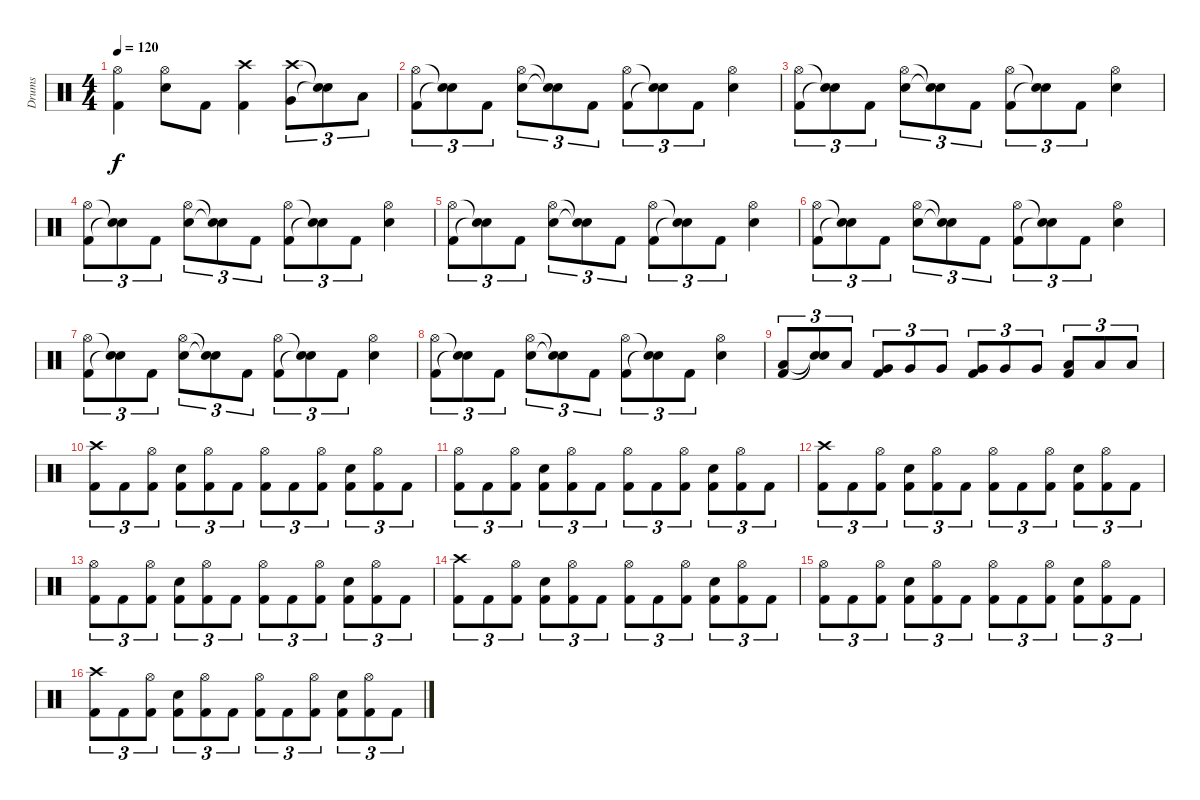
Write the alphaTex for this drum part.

\track ("Drums" "Drums") {instrument percussion}
\staff {score}
\articulation defaults
\ts (4 4)
\tempo 120
\clef neutral
\ks c
("Hi-Hat (open)" "Kick (hit) 2").4{dy f} ("Hi-Hat (open)" "Electric Snare (hit)").8 "Kick (hit) 2".8 ("Crash high (hit)" "Kick (hit) 2").4 ("Crash high (hit)" "Very Low Tom (hit)").8{tu (3 2)} ("Snare (hit)"{t} "Snare (hit)"{t}).8{tu (3 2)} "Low Floor Tom (hit)".8{tu (3 2)} |
("Hi-Hat (open)" "Kick (hit) 2").8{tu (3 2)} ("Snare (hit)"{t} "Snare (hit)"{t}).8{tu (3 2)} "Kick (hit) 2".8{tu (3 2)} ("Hi-Hat (open)" "Electric Snare (hit)").8{tu (3 2)} ("Snare (hit)"{t} "Snare (hit)"{t}).8{tu (3 2)} "Kick (hit) 2".8{tu (3 2)} ("Hi-Hat (open)" "Kick (hit) 2").8{tu (3 2)} ("Snare (hit)"{t} "Snare (hit)"{t}).8{tu (3 2)} "Kick (hit) 2".8{tu (3 2)} ("Hi-Hat (open)" "Electric Snare (hit)").4 |
("Hi-Hat (open)" "Kick (hit) 2").8{tu (3 2)} ("Snare (hit)"{t} "Snare (hit)"{t}).8{tu (3 2)} "Kick (hit) 2".8{tu (3 2)} ("Hi-Hat (open)" "Electric Snare (hit)").8{tu (3 2)} ("Snare (hit)"{t} "Snare (hit)"{t}).8{tu (3 2)} "Kick (hit) 2".8{tu (3 2)} ("Hi-Hat (open)" "Kick (hit) 2").8{tu (3 2)} ("Snare (hit)"{t} "Snare (hit)"{t}).8{tu (3 2)} "Kick (hit) 2".8{tu (3 2)} ("Hi-Hat (open)" "Electric Snare (hit)").4 |
("Hi-Hat (open)" "Kick (hit) 2").8{tu (3 2)} ("Snare (hit)"{t} "Snare (hit)"{t}).8{tu (3 2)} "Kick (hit) 2".8{tu (3 2)} ("Hi-Hat (open)" "Electric Snare (hit)").8{tu (3 2)} ("Snare (hit)"{t} "Snare (hit)"{t}).8{tu (3 2)} "Kick (hit) 2".8{tu (3 2)} ("Hi-Hat (open)" "Kick (hit) 2").8{tu (3 2)} ("Snare (hit)"{t} "Snare (hit)"{t}).8{tu (3 2)} "Kick (hit) 2".8{tu (3 2)} ("Hi-Hat (open)" "Electric Snare (hit)").4 |
("Hi-Hat (open)" "Kick (hit) 2").8{tu (3 2)} ("Snare (hit)"{t} "Snare (hit)"{t}).8{tu (3 2)} "Kick (hit) 2".8{tu (3 2)} ("Hi-Hat (open)" "Electric Snare (hit)").8{tu (3 2)} ("Snare (hit)"{t} "Snare (hit)"{t}).8{tu (3 2)} "Kick (hit) 2".8{tu (3 2)} ("Hi-Hat (open)" "Kick (hit) 2").8{tu (3 2)} ("Snare (hit)"{t} "Snare (hit)"{t}).8{tu (3 2)} "Kick (hit) 2".8{tu (3 2)} ("Hi-Hat (open)" "Electric Snare (hit)").4 |
("Hi-Hat (open)" "Kick (hit) 2").8{tu (3 2)} ("Snare (hit)"{t} "Snare (hit)"{t}).8{tu (3 2)} "Kick (hit) 2".8{tu (3 2)} ("Hi-Hat (open)" "Electric Snare (hit)").8{tu (3 2)} ("Snare (hit)"{t} "Snare (hit)"{t}).8{tu (3 2)} "Kick (hit) 2".8{tu (3 2)} ("Hi-Hat (open)" "Kick (hit) 2").8{tu (3 2)} ("Snare (hit)"{t} "Snare (hit)"{t}).8{tu (3 2)} "Kick (hit) 2".8{tu (3 2)} ("Hi-Hat (open)" "Electric Snare (hit)").4 |
("Hi-Hat (open)" "Kick (hit) 2").8{tu (3 2)} ("Snare (hit)"{t} "Snare (hit)"{t}).8{tu (3 2)} "Kick (hit) 2".8{tu (3 2)} ("Hi-Hat (open)" "Electric Snare (hit)").8{tu (3 2)} ("Snare (hit)"{t} "Snare (hit)"{t}).8{tu (3 2)} "Kick (hit) 2".8{tu (3 2)} ("Hi-Hat (open)" "Kick (hit) 2").8{tu (3 2)} ("Snare (hit)"{t} "Snare (hit)"{t}).8{tu (3 2)} "Kick (hit) 2".8{tu (3 2)} ("Hi-Hat (open)" "Electric Snare (hit)").4 |
("Hi-Hat (open)" "Kick (hit) 2").8{tu (3 2)} ("Snare (hit)"{t} "Snare (hit)"{t}).8{tu (3 2)} "Kick (hit) 2".8{tu (3 2)} ("Hi-Hat (open)" "Electric Snare (hit)").8{tu (3 2)} ("Snare (hit)"{t} "Snare (hit)"{t}).8{tu (3 2)} "Kick (hit) 2".8{tu (3 2)} ("Hi-Hat (open)" "Kick (hit) 2").8{tu (3 2)} ("Snare (hit)"{t} "Snare (hit)"{t}).8{tu (3 2)} "Kick (hit) 2".8{tu (3 2)} ("Hi-Hat (open)" "Electric Snare (hit)").4 |
("Kick (hit) 2" "Low Tom (hit)").8{tu (3 2)} ("Snare (hit)"{t} "Snare (hit)"{t}).8{tu (3 2)} "Low Tom (hit)".8{tu (3 2)} ("Kick (hit) 2" "Very Low Tom (hit)").8{tu (3 2)} "Very Low Tom (hit)".8{tu (3 2)} "Very Low Tom (hit)".8{tu (3 2)} ("Kick (hit) 2" "Very Low Tom (hit)").8{tu (3 2)} "Very Low Tom (hit)".8{tu (3 2)} "Very Low Tom (hit)".8{tu (3 2)} ("Kick (hit) 2" "Low Floor Tom (hit)").8{tu (3 2)} "Low Floor Tom (hit)".8{tu (3 2)} "Low Floor Tom (hit)".8{tu (3 2)} |
("Crash high (hit)" "Kick (hit) 2").8{tu (3 2)} "Kick (hit) 2".8{tu (3 2)} ("Hi-Hat (open)" "Kick (hit) 2").8{tu (3 2)} ("Electric Snare (hit)" "Kick (hit) 2").8{tu (3 2)} ("Hi-Hat (open)" "Kick (hit) 2").8{tu (3 2)} "Kick (hit) 2".8{tu (3 2)} ("Hi-Hat (open)" "Kick (hit) 2").8{tu (3 2)} "Kick (hit) 2".8{tu (3 2)} ("Hi-Hat (open)" "Kick (hit) 2").8{tu (3 2)} ("Electric Snare (hit)" "Kick (hit) 2").8{tu (3 2)} ("Hi-Hat (open)" "Kick (hit) 2").8{tu (3 2)} "Kick (hit) 2".8{tu (3 2)} |
("Hi-Hat (open)" "Kick (hit) 2").8{tu (3 2)} "Kick (hit) 2".8{tu (3 2)} ("Hi-Hat (open)" "Kick (hit) 2").8{tu (3 2)} ("Electric Snare (hit)" "Kick (hit) 2").8{tu (3 2)} ("Hi-Hat (open)" "Kick (hit) 2").8{tu (3 2)} "Kick (hit) 2".8{tu (3 2)} ("Hi-Hat (open)" "Kick (hit) 2").8{tu (3 2)} "Kick (hit) 2".8{tu (3 2)} ("Hi-Hat (open)" "Kick (hit) 2").8{tu (3 2)} ("Electric Snare (hit)" "Kick (hit) 2").8{tu (3 2)} ("Hi-Hat (open)" "Kick (hit) 2").8{tu (3 2)} "Kick (hit) 2".8{tu (3 2)} |
("Crash high (hit)" "Kick (hit) 2").8{tu (3 2)} "Kick (hit) 2".8{tu (3 2)} ("Hi-Hat (open)" "Kick (hit) 2").8{tu (3 2)} ("Electric Snare (hit)" "Kick (hit) 2").8{tu (3 2)} ("Hi-Hat (open)" "Kick (hit) 2").8{tu (3 2)} "Kick (hit) 2".8{tu (3 2)} ("Hi-Hat (open)" "Kick (hit) 2").8{tu (3 2)} "Kick (hit) 2".8{tu (3 2)} ("Hi-Hat (open)" "Kick (hit) 2").8{tu (3 2)} ("Electric Snare (hit)" "Kick (hit) 2").8{tu (3 2)} ("Hi-Hat (open)" "Kick (hit) 2").8{tu (3 2)} "Kick (hit) 2".8{tu (3 2)} |
("Hi-Hat (open)" "Kick (hit) 2").8{tu (3 2)} "Kick (hit) 2".8{tu (3 2)} ("Hi-Hat (open)" "Kick (hit) 2").8{tu (3 2)} ("Electric Snare (hit)" "Kick (hit) 2").8{tu (3 2)} ("Hi-Hat (open)" "Kick (hit) 2").8{tu (3 2)} "Kick (hit) 2".8{tu (3 2)} ("Hi-Hat (open)" "Kick (hit) 2").8{tu (3 2)} "Kick (hit) 2".8{tu (3 2)} ("Hi-Hat (open)" "Kick (hit) 2").8{tu (3 2)} ("Electric Snare (hit)" "Kick (hit) 2").8{tu (3 2)} ("Hi-Hat (open)" "Kick (hit) 2").8{tu (3 2)} "Kick (hit) 2".8{tu (3 2)} |
("Crash high (hit)" "Kick (hit) 2").8{tu (3 2)} "Kick (hit) 2".8{tu (3 2)} ("Hi-Hat (open)" "Kick (hit) 2").8{tu (3 2)} ("Electric Snare (hit)" "Kick (hit) 2").8{tu (3 2)} ("Hi-Hat (open)" "Kick (hit) 2").8{tu (3 2)} "Kick (hit) 2".8{tu (3 2)} ("Hi-Hat (open)" "Kick (hit) 2").8{tu (3 2)} "Kick (hit) 2".8{tu (3 2)} ("Hi-Hat (open)" "Kick (hit) 2").8{tu (3 2)} ("Electric Snare (hit)" "Kick (hit) 2").8{tu (3 2)} ("Hi-Hat (open)" "Kick (hit) 2").8{tu (3 2)} "Kick (hit) 2".8{tu (3 2)} |
("Hi-Hat (open)" "Kick (hit) 2").8{tu (3 2)} "Kick (hit) 2".8{tu (3 2)} ("Hi-Hat (open)" "Kick (hit) 2").8{tu (3 2)} ("Electric Snare (hit)" "Kick (hit) 2").8{tu (3 2)} ("Hi-Hat (open)" "Kick (hit) 2").8{tu (3 2)} "Kick (hit) 2".8{tu (3 2)} ("Hi-Hat (open)" "Kick (hit) 2").8{tu (3 2)} "Kick (hit) 2".8{tu (3 2)} ("Hi-Hat (open)" "Kick (hit) 2").8{tu (3 2)} ("Electric Snare (hit)" "Kick (hit) 2").8{tu (3 2)} ("Hi-Hat (open)" "Kick (hit) 2").8{tu (3 2)} "Kick (hit) 2".8{tu (3 2)} |
("Crash high (hit)" "Kick (hit) 2").8{tu (3 2)} "Kick (hit) 2".8{tu (3 2)} ("Hi-Hat (open)" "Kick (hit) 2").8{tu (3 2)} ("Electric Snare (hit)" "Kick (hit) 2").8{tu (3 2)} ("Hi-Hat (open)" "Kick (hit) 2").8{tu (3 2)} "Kick (hit) 2".8{tu (3 2)} ("Hi-Hat (open)" "Kick (hit) 2").8{tu (3 2)} "Kick (hit) 2".8{tu (3 2)} ("Hi-Hat (open)" "Kick (hit) 2").8{tu (3 2)} ("Electric Snare (hit)" "Kick (hit) 2").8{tu (3 2)} ("Hi-Hat (open)" "Kick (hit) 2").8{tu (3 2)} "Kick (hit) 2".8{tu (3 2)}
